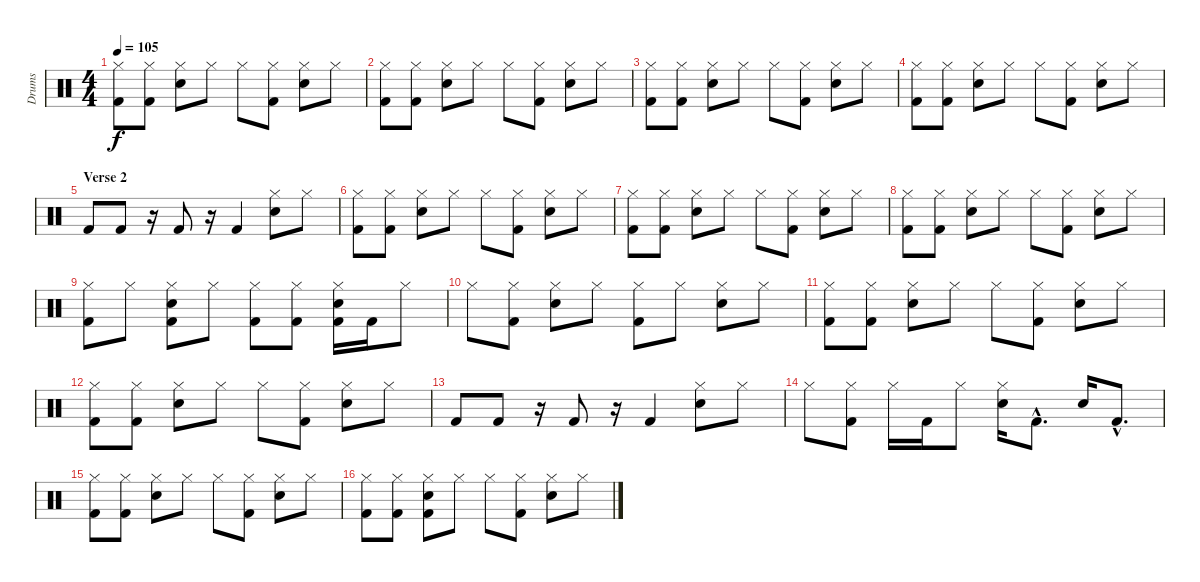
\track ("Drums" "Drums") {instrument percussion}
\staff {score}
\articulation defaults
\ts (4 4)
\tempo 105
\clef neutral
\ks c
("Hi-Hat (closed)" "Kick (hit) 2").8{dy f} ("Hi-Hat (closed)" "Kick (hit) 2").8 ("Hi-Hat (closed)" "Snare (hit) 2").8 "Hi-Hat (closed)".8 "Hi-Hat (closed)".8 ("Hi-Hat (closed)" "Kick (hit) 2").8 ("Hi-Hat (closed)" "Snare (hit) 2").8 "Hi-Hat (closed)".8 |
("Hi-Hat (closed)" "Kick (hit) 2").8 ("Hi-Hat (closed)" "Kick (hit) 2").8 ("Hi-Hat (closed)" "Snare (hit) 2").8 "Hi-Hat (closed)".8 "Hi-Hat (closed)".8 ("Hi-Hat (closed)" "Kick (hit) 2").8 ("Hi-Hat (closed)" "Snare (hit) 2").8 "Hi-Hat (closed)".8 |
("Hi-Hat (closed)" "Kick (hit) 2").8 ("Hi-Hat (closed)" "Kick (hit) 2").8 ("Hi-Hat (closed)" "Snare (hit) 2").8 "Hi-Hat (closed)".8 "Hi-Hat (closed)".8 ("Hi-Hat (closed)" "Kick (hit) 2").8 ("Hi-Hat (closed)" "Snare (hit) 2").8 "Hi-Hat (closed)".8 |
("Hi-Hat (closed)" "Kick (hit) 2").8 ("Hi-Hat (closed)" "Kick (hit) 2").8 ("Hi-Hat (closed)" "Snare (hit) 2").8 "Hi-Hat (closed)".8 "Hi-Hat (closed)".8 ("Hi-Hat (closed)" "Kick (hit) 2").8 ("Hi-Hat (closed)" "Snare (hit) 2").8 "Hi-Hat (closed)".8 |
\section ("" "Verse 2")
"Kick (hit) 2".8 "Kick (hit) 2".8 r.16 "Kick (hit) 2".8 r.16 "Kick (hit) 2".4 ("Hi-Hat (closed)" "Snare (hit) 2").8 "Hi-Hat (closed)".8 |
("Hi-Hat (closed)" "Kick (hit) 2").8 ("Hi-Hat (closed)" "Kick (hit) 2").8 ("Hi-Hat (closed)" "Snare (hit) 2").8 "Hi-Hat (closed)".8 "Hi-Hat (closed)".8 ("Hi-Hat (closed)" "Kick (hit) 2").8 ("Hi-Hat (closed)" "Snare (hit) 2").8 "Hi-Hat (closed)".8 |
("Hi-Hat (closed)" "Kick (hit) 2").8 ("Hi-Hat (closed)" "Kick (hit) 2").8 ("Hi-Hat (closed)" "Snare (hit) 2").8 "Hi-Hat (closed)".8 "Hi-Hat (closed)".8 ("Hi-Hat (closed)" "Kick (hit) 2").8 ("Hi-Hat (closed)" "Snare (hit) 2").8 "Hi-Hat (closed)".8 |
("Hi-Hat (closed)" "Kick (hit) 2").8 ("Hi-Hat (closed)" "Kick (hit) 2").8 ("Hi-Hat (closed)" "Snare (hit) 2").8 "Hi-Hat (closed)".8 "Hi-Hat (closed)".8 ("Hi-Hat (closed)" "Kick (hit) 2").8 ("Hi-Hat (closed)" "Snare (hit) 2").8 "Hi-Hat (closed)".8 |
("Hi-Hat (closed)" "Kick (hit) 2").8 "Hi-Hat (closed)".8 ("Hi-Hat (closed)" "Kick (hit) 2" "Snare (hit) 2").8 "Hi-Hat (closed)".8 ("Hi-Hat (closed)" "Kick (hit) 2").8 ("Hi-Hat (closed)" "Kick (hit) 2").8 ("Hi-Hat (closed)" "Kick (hit) 2" "Snare (hit) 2").16 "Kick (hit) 2".16 "Hi-Hat (closed)".8 |
"Hi-Hat (closed)".8 ("Hi-Hat (closed)" "Kick (hit) 2").8 ("Hi-Hat (closed)" "Snare (hit) 2").8 "Hi-Hat (closed)".8 ("Hi-Hat (closed)" "Kick (hit) 2").8 "Hi-Hat (closed)".8 ("Hi-Hat (closed)" "Snare (hit) 2").8 "Hi-Hat (closed)".8 |
("Hi-Hat (closed)" "Kick (hit) 2").8 ("Hi-Hat (closed)" "Kick (hit) 2").8 ("Hi-Hat (closed)" "Snare (hit) 2").8 "Hi-Hat (closed)".8 "Hi-Hat (closed)".8 ("Hi-Hat (closed)" "Kick (hit) 2").8 ("Hi-Hat (closed)" "Snare (hit) 2").8 "Hi-Hat (closed)".8 |
("Hi-Hat (closed)" "Kick (hit) 2").8 ("Hi-Hat (closed)" "Kick (hit) 2").8 ("Hi-Hat (closed)" "Snare (hit) 2").8 "Hi-Hat (closed)".8 "Hi-Hat (closed)".8 ("Hi-Hat (closed)" "Kick (hit) 2").8 ("Hi-Hat (closed)" "Snare (hit) 2").8 "Hi-Hat (closed)".8 |
"Kick (hit) 2".8 "Kick (hit) 2".8 r.16 "Kick (hit) 2".8 r.16 "Kick (hit) 2".4 ("Hi-Hat (closed)" "Snare (hit) 2").8 "Hi-Hat (closed)".8 |
"Hi-Hat (closed)".8 ("Hi-Hat (closed)" "Kick (hit) 2").8 "Hi-Hat (closed)".16 "Kick (hit) 2".16 "Hi-Hat (closed)".8 ("Hi-Hat (closed)" "Snare (hit) 2").16 "Kick (hit) 2"{hac}.8{d} "Snare (hit) 2".16 "Kick (hit) 2"{hac}.8{d} |
("Hi-Hat (closed)" "Kick (hit) 2").8 ("Hi-Hat (closed)" "Kick (hit) 2").8 ("Hi-Hat (closed)" "Snare (hit) 2").8 "Hi-Hat (closed)".8 "Hi-Hat (closed)".8 ("Hi-Hat (closed)" "Kick (hit) 2").8 ("Hi-Hat (closed)" "Snare (hit) 2").8 "Hi-Hat (closed)".8 |
("Hi-Hat (closed)" "Kick (hit) 2").8 ("Hi-Hat (closed)" "Kick (hit) 2").8 ("Hi-Hat (closed)" "Kick (hit) 2" "Snare (hit) 2").8 "Hi-Hat (closed)".8 "Hi-Hat (closed)".8 ("Hi-Hat (closed)" "Kick (hit) 2").8 ("Hi-Hat (closed)" "Snare (hit) 2").8 "Hi-Hat (closed)".8
